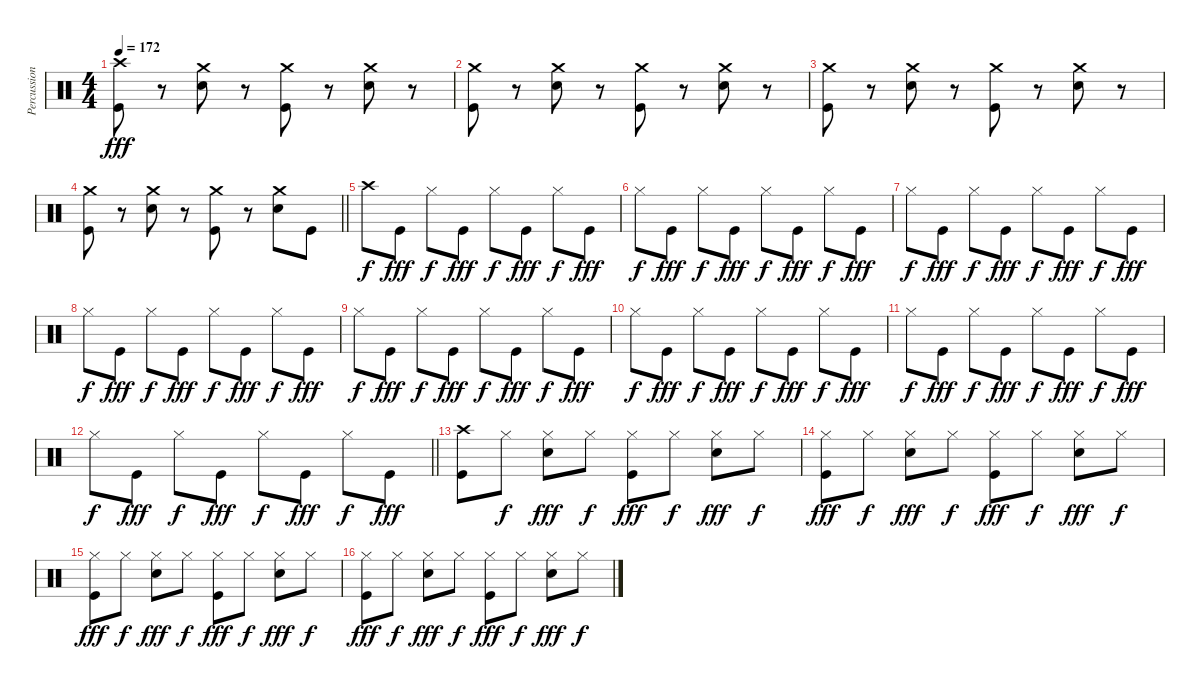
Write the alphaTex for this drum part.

\track ("Percussions" "Percussion") {instrument percussion}
\staff {score}
\articulation defaults
\ts (4 4)
\tempo 172
\clef neutral
\ks c
("Crash high (hit)" "Kick (hit)").8{dy fff} r.8 ("Crash medium (hit)" "Snare (hit) 2").8 r.8 ("Crash medium (hit)" "Kick (hit)").8 r.8 ("Crash medium (hit)" "Snare (hit) 2").8 r.8 |
("Crash medium (hit)" "Kick (hit)").8 r.8 ("Crash medium (hit)" "Snare (hit) 2").8 r.8 ("Crash medium (hit)" "Kick (hit)").8 r.8 ("Crash medium (hit)" "Snare (hit) 2").8 r.8 |
("Crash medium (hit)" "Kick (hit)").8 r.8 ("Crash medium (hit)" "Snare (hit) 2").8 r.8 ("Crash medium (hit)" "Kick (hit)").8 r.8 ("Crash medium (hit)" "Snare (hit) 2").8 r.8 |
\barLineRight lightlight
("Crash medium (hit)" "Kick (hit)").8 r.8 ("Crash medium (hit)" "Snare (hit) 2").8 r.8 ("Crash medium (hit)" "Kick (hit)").8 r.8 ("Crash medium (hit)" "Snare (hit) 2").8 "Kick (hit)".8 |
"Crash high (hit)".8{dy f} "Kick (hit)".8{dy fff} "Hi-Hat (closed)".8{dy f} "Kick (hit)".8{dy fff} "Hi-Hat (closed)".8{dy f} "Kick (hit)".8{dy fff} "Hi-Hat (closed)".8{dy f} "Kick (hit)".8{dy fff} |
"Hi-Hat (closed)".8{dy f} "Kick (hit)".8{dy fff} "Hi-Hat (closed)".8{dy f} "Kick (hit)".8{dy fff} "Hi-Hat (closed)".8{dy f} "Kick (hit)".8{dy fff} "Hi-Hat (closed)".8{dy f} "Kick (hit)".8{dy fff} |
"Hi-Hat (closed)".8{dy f} "Kick (hit)".8{dy fff} "Hi-Hat (closed)".8{dy f} "Kick (hit)".8{dy fff} "Hi-Hat (closed)".8{dy f} "Kick (hit)".8{dy fff} "Hi-Hat (closed)".8{dy f} "Kick (hit)".8{dy fff} |
"Hi-Hat (closed)".8{dy f} "Kick (hit)".8{dy fff} "Hi-Hat (closed)".8{dy f} "Kick (hit)".8{dy fff} "Hi-Hat (closed)".8{dy f} "Kick (hit)".8{dy fff} "Hi-Hat (closed)".8{dy f} "Kick (hit)".8{dy fff} |
"Hi-Hat (closed)".8{dy f} "Kick (hit)".8{dy fff} "Hi-Hat (closed)".8{dy f} "Kick (hit)".8{dy fff} "Hi-Hat (closed)".8{dy f} "Kick (hit)".8{dy fff} "Hi-Hat (closed)".8{dy f} "Kick (hit)".8{dy fff} |
"Hi-Hat (closed)".8{dy f} "Kick (hit)".8{dy fff} "Hi-Hat (closed)".8{dy f} "Kick (hit)".8{dy fff} "Hi-Hat (closed)".8{dy f} "Kick (hit)".8{dy fff} "Hi-Hat (closed)".8{dy f} "Kick (hit)".8{dy fff} |
"Hi-Hat (closed)".8{dy f} "Kick (hit)".8{dy fff} "Hi-Hat (closed)".8{dy f} "Kick (hit)".8{dy fff} "Hi-Hat (closed)".8{dy f} "Kick (hit)".8{dy fff} "Hi-Hat (closed)".8{dy f} "Kick (hit)".8{dy fff} |
\barLineRight lightlight "Hi-Hat (closed)".8{dy f} "Kick (hit)".8{dy fff} "Hi-Hat (closed)".8{dy f} "Kick (hit)".8{dy fff} "Hi-Hat (closed)".8{dy f} "Kick (hit)".8{dy fff} "Hi-Hat (closed)".8{dy f} "Kick (hit)".8{dy fff}
|
("Crash high (hit)" "Kick (hit)").8 "Hi-Hat (closed)".8{dy f} ("Hi-Hat (closed)" "Snare (hit) 2").8{dy fff} "Hi-Hat (closed)".8{dy f} ("Hi-Hat (closed)" "Kick (hit)").8{dy fff} "Hi-Hat (closed)".8{dy f} ("Hi-Hat (closed)" "Snare (hit) 2").8{dy fff} "Hi-Hat (closed)".8{dy f} |
("Hi-Hat (closed)" "Kick (hit)").8{dy fff} "Hi-Hat (closed)".8{dy f} ("Hi-Hat (closed)" "Snare (hit) 2").8{dy fff} "Hi-Hat (closed)".8{dy f} ("Hi-Hat (closed)" "Kick (hit)").8{dy fff} "Hi-Hat (closed)".8{dy f} ("Hi-Hat (closed)" "Snare (hit) 2").8{dy fff} "Hi-Hat (closed)".8{dy f} |
("Hi-Hat (closed)" "Kick (hit)").8{dy fff} "Hi-Hat (closed)".8{dy f} ("Hi-Hat (closed)" "Snare (hit) 2").8{dy fff} "Hi-Hat (closed)".8{dy f} ("Hi-Hat (closed)" "Kick (hit)").8{dy fff} "Hi-Hat (closed)".8{dy f} ("Hi-Hat (closed)" "Snare (hit) 2").8{dy fff} "Hi-Hat (closed)".8{dy f} |
("Hi-Hat (closed)" "Kick (hit)").8{dy fff} "Hi-Hat (closed)".8{dy f} ("Hi-Hat (closed)" "Snare (hit) 2").8{dy fff} "Hi-Hat (closed)".8{dy f} ("Hi-Hat (closed)" "Kick (hit)").8{dy fff} "Hi-Hat (closed)".8{dy f} ("Hi-Hat (closed)" "Snare (hit) 2").8{dy fff} "Hi-Hat (closed)".8{dy f}
